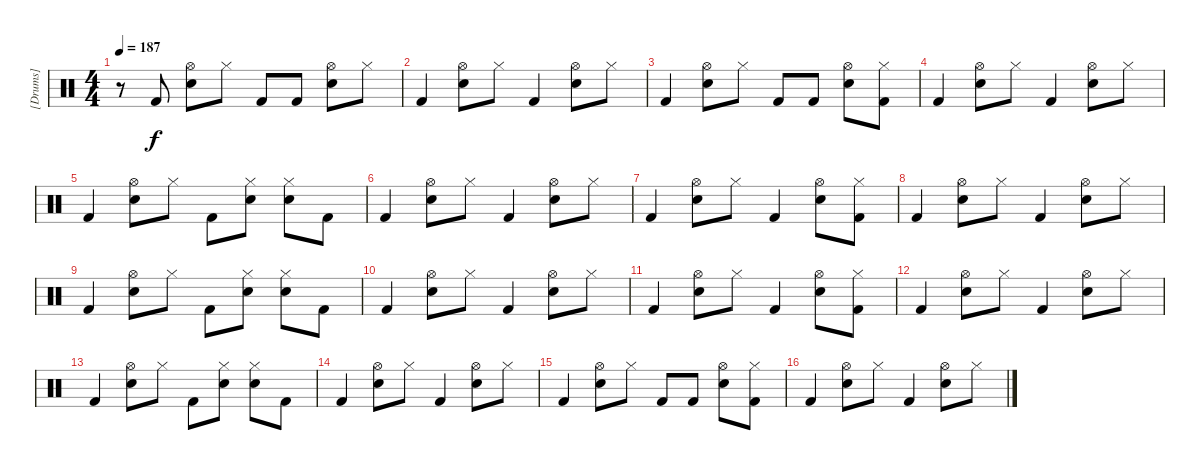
\track ("[Drums]" "[Drums]") {instrument percussion}
\staff {score}
\articulation defaults
\ts (4 4)
\tempo 187
\clef neutral
\ks c
r.8{dy mp} "Kick (hit) 2".8{dy f} ("Hi-Hat (open)" "Electric Snare (hit)").8 "Hi-Hat (closed)".8 "Kick (hit) 2".8 "Kick (hit) 2".8 ("Hi-Hat (open)" "Electric Snare (hit)").8 "Hi-Hat (closed)".8 |
"Kick (hit) 2".4 ("Hi-Hat (open)" "Electric Snare (hit)").8 "Hi-Hat (closed)".8 "Kick (hit) 2".4 ("Hi-Hat (open)" "Electric Snare (hit)").8 "Hi-Hat (closed)".8 |
"Kick (hit) 2".4 ("Hi-Hat (open)" "Electric Snare (hit)").8 "Hi-Hat (closed)".8 "Kick (hit) 2".8 "Kick (hit) 2".8 ("Hi-Hat (open)" "Electric Snare (hit)").8 ("Hi-Hat (closed)" "Kick (hit) 2").8 |
"Kick (hit) 2".4 ("Hi-Hat (open)" "Electric Snare (hit)").8 "Hi-Hat (closed)".8 "Kick (hit) 2".4 ("Hi-Hat (open)" "Electric Snare (hit)").8 "Hi-Hat (closed)".8 |
"Kick (hit) 2".4 ("Hi-Hat (open)" "Electric Snare (hit)").8 "Hi-Hat (closed)".8 "Kick (hit) 2".8 ("Hi-Hat (closed)" "Electric Snare (hit)").8 ("Hi-Hat (closed)" "Electric Snare (hit)").8 "Kick (hit) 2".8 |
"Kick (hit) 2".4 ("Hi-Hat (open)" "Electric Snare (hit)").8 "Hi-Hat (closed)".8 "Kick (hit) 2".4 ("Hi-Hat (open)" "Electric Snare (hit)").8 "Hi-Hat (closed)".8 |
"Kick (hit) 2".4 ("Hi-Hat (open)" "Electric Snare (hit)").8 "Hi-Hat (closed)".8 "Kick (hit) 2".4 ("Hi-Hat (open)" "Electric Snare (hit)").8 ("Hi-Hat (closed)" "Kick (hit) 2").8 |
"Kick (hit) 2".4 ("Hi-Hat (open)" "Electric Snare (hit)").8 "Hi-Hat (closed)".8 "Kick (hit) 2".4 ("Hi-Hat (open)" "Electric Snare (hit)").8 "Hi-Hat (closed)".8 |
"Kick (hit) 2".4 ("Hi-Hat (open)" "Electric Snare (hit)").8 "Hi-Hat (closed)".8 "Kick (hit) 2".8 ("Hi-Hat (closed)" "Electric Snare (hit)").8 ("Hi-Hat (closed)" "Electric Snare (hit)").8 "Kick (hit) 2".8 |
"Kick (hit) 2".4 ("Hi-Hat (open)" "Electric Snare (hit)").8 "Hi-Hat (closed)".8 "Kick (hit) 2".4 ("Hi-Hat (open)" "Electric Snare (hit)").8 "Hi-Hat (closed)".8 |
"Kick (hit) 2".4 ("Hi-Hat (open)" "Electric Snare (hit)").8 "Hi-Hat (closed)".8 "Kick (hit) 2".4 ("Hi-Hat (open)" "Electric Snare (hit)").8 ("Hi-Hat (closed)" "Kick (hit) 2").8 |
"Kick (hit) 2".4 ("Hi-Hat (open)" "Electric Snare (hit)").8 "Hi-Hat (closed)".8 "Kick (hit) 2".4 ("Hi-Hat (open)" "Electric Snare (hit)").8 "Hi-Hat (closed)".8 |
"Kick (hit) 2".4 ("Hi-Hat (open)" "Electric Snare (hit)").8 "Hi-Hat (closed)".8 "Kick (hit) 2".8 ("Hi-Hat (closed)" "Electric Snare (hit)").8 ("Hi-Hat (closed)" "Electric Snare (hit)").8 "Kick (hit) 2".8 |
"Kick (hit) 2".4 ("Hi-Hat (open)" "Electric Snare (hit)").8 "Hi-Hat (closed)".8 "Kick (hit) 2".4 ("Hi-Hat (open)" "Electric Snare (hit)").8 "Hi-Hat (closed)".8 |
"Kick (hit) 2".4 ("Hi-Hat (open)" "Electric Snare (hit)").8 "Hi-Hat (closed)".8 "Kick (hit) 2".8 "Kick (hit) 2".8 ("Hi-Hat (open)" "Electric Snare (hit)").8 ("Hi-Hat (closed)" "Kick (hit) 2").8 |
"Kick (hit) 2".4 ("Hi-Hat (open)" "Electric Snare (hit)").8 "Hi-Hat (closed)".8 "Kick (hit) 2".4 ("Hi-Hat (open)" "Electric Snare (hit)").8 "Hi-Hat (closed)".8
